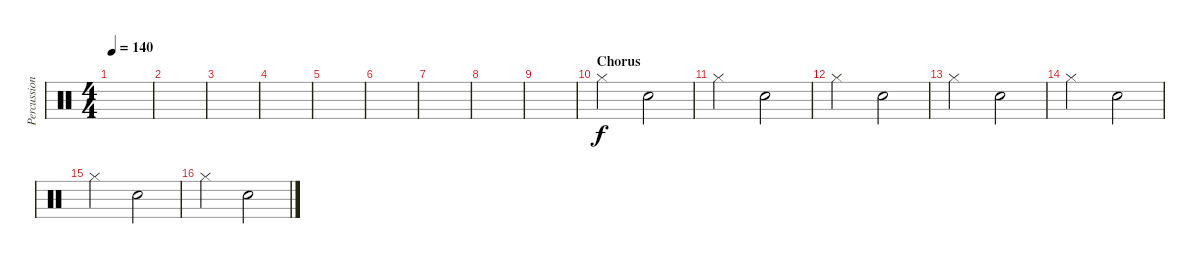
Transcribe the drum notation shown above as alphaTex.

\track ("Percussion" "Percussion") {instrument percussion}
\staff {score}
\articulation defaults
\ts (4 4)
\tempo 140
\clef neutral
\ks c
|
|
|
|
|
|
|
|
|
\section ("" "Chorus")
"Hi-Hat (closed)".2 "Snare (hit) 2".2 |
"Hi-Hat (closed)".2 "Snare (hit) 2".2 |
"Hi-Hat (closed)".2 "Snare (hit) 2".2 |
"Hi-Hat (closed)".2 "Snare (hit) 2".2 |
"Hi-Hat (closed)".2 "Snare (hit) 2".2 |
"Hi-Hat (closed)".2 "Snare (hit) 2".2 |
"Hi-Hat (closed)".2 "Snare (hit) 2".2
